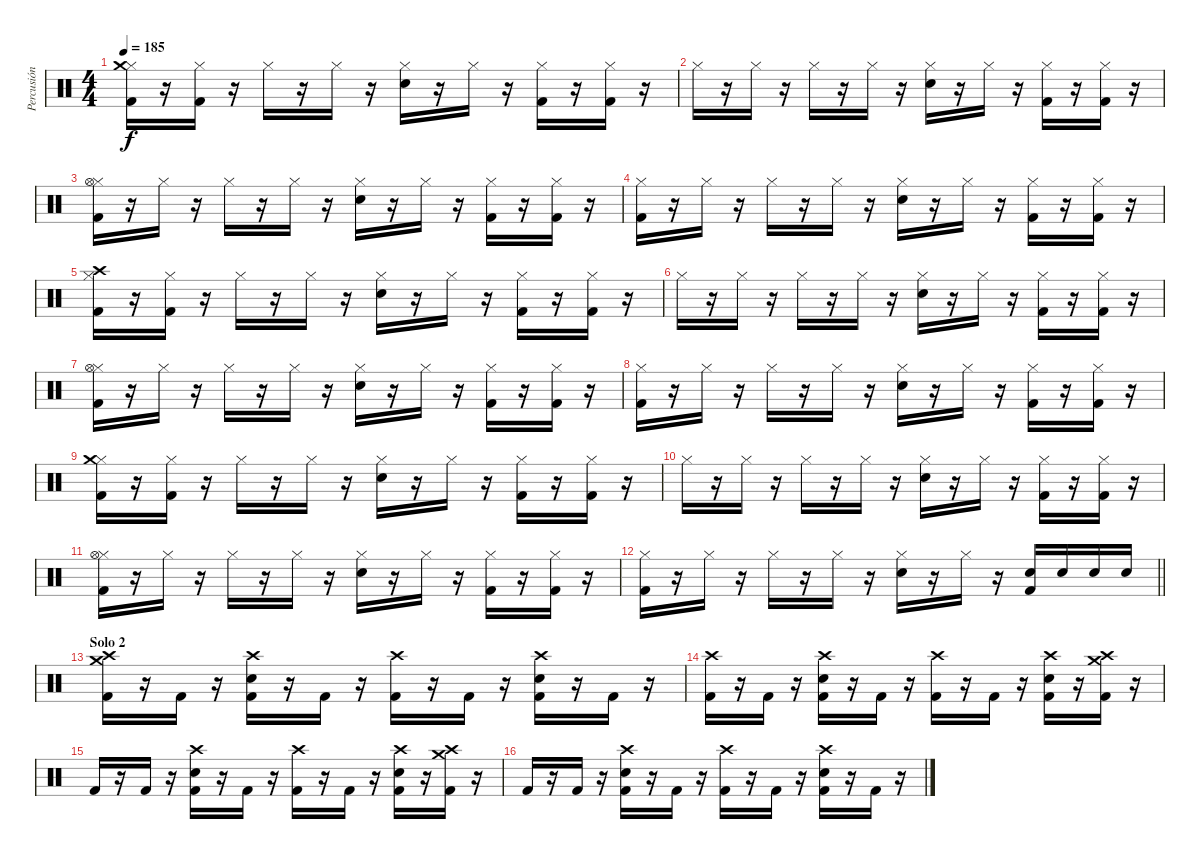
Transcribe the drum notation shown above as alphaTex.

\track ("Percusión" "Percusión") {instrument percussion}
\staff {score}
\articulation defaults
\ts (4 4)
\tempo 185
\clef neutral
\ks c
("Hi-Hat (closed)" "Crash medium (hit)" "Kick (hit) 2").16{dy f} r.16 ("Hi-Hat (closed)" "Kick (hit) 2").16 r.16 "Hi-Hat (closed)".16 r.16 "Hi-Hat (closed)".16 r.16 ("Hi-Hat (closed)" "Electric Snare (hit)").16 r.16 "Hi-Hat (closed)".16 r.16 ("Hi-Hat (closed)" "Kick (hit) 2").16 r.16 ("Hi-Hat (closed)" "Kick (hit) 2").16 r.16 |
"Hi-Hat (closed)".16 r.16 "Hi-Hat (closed)".16 r.16 "Hi-Hat (closed)".16 r.16 "Hi-Hat (closed)".16 r.16 ("Hi-Hat (closed)" "Electric Snare (hit)").16 r.16 "Hi-Hat (closed)".16 r.16 ("Hi-Hat (closed)" "Kick (hit) 2").16 r.16 ("Hi-Hat (closed)" "Kick (hit) 2").16 r.16 |
("Hi-Hat (closed)" "Hi-Hat (open)" "Kick (hit) 2").16 r.16 "Hi-Hat (closed)".16 r.16 "Hi-Hat (closed)".16 r.16 "Hi-Hat (closed)".16 r.16 ("Hi-Hat (closed)" "Electric Snare (hit)").16 r.16 "Hi-Hat (closed)".16 r.16 ("Hi-Hat (closed)" "Kick (hit) 2").16 r.16 ("Hi-Hat (closed)" "Kick (hit) 2").16 r.16 |
("Hi-Hat (closed)" "Kick (hit) 2").16 r.16 "Hi-Hat (closed)".16 r.16 "Hi-Hat (closed)".16 r.16 "Hi-Hat (closed)".16 r.16 ("Hi-Hat (closed)" "Electric Snare (hit)").16 r.16 "Hi-Hat (closed)".16 r.16 ("Hi-Hat (closed)" "Kick (hit) 2").16 r.16 ("Hi-Hat (closed)" "Kick (hit) 2").16 r.16 |
("Hi-Hat (closed)" "Crash high (hit)" "Kick (hit) 2").16 r.16 ("Hi-Hat (closed)" "Kick (hit) 2").16 r.16 "Hi-Hat (closed)".16 r.16 "Hi-Hat (closed)".16 r.16 ("Hi-Hat (closed)" "Electric Snare (hit)").16 r.16 "Hi-Hat (closed)".16 r.16 ("Hi-Hat (closed)" "Kick (hit) 2").16 r.16 ("Hi-Hat (closed)" "Kick (hit) 2").16 r.16 |
"Hi-Hat (closed)".16 r.16 "Hi-Hat (closed)".16 r.16 "Hi-Hat (closed)".16 r.16 "Hi-Hat (closed)".16 r.16 ("Hi-Hat (closed)" "Electric Snare (hit)").16 r.16 "Hi-Hat (closed)".16 r.16 ("Hi-Hat (closed)" "Kick (hit) 2").16 r.16 ("Hi-Hat (closed)" "Kick (hit) 2").16 r.16 |
("Hi-Hat (closed)" "Hi-Hat (open)" "Kick (hit) 2").16 r.16 "Hi-Hat (closed)".16 r.16 "Hi-Hat (closed)".16 r.16 "Hi-Hat (closed)".16 r.16 ("Hi-Hat (closed)" "Electric Snare (hit)").16 r.16 "Hi-Hat (closed)".16 r.16 ("Hi-Hat (closed)" "Kick (hit) 2").16 r.16 ("Hi-Hat (closed)" "Kick (hit) 2").16 r.16 |
("Hi-Hat (closed)" "Kick (hit) 2").16 r.16 "Hi-Hat (closed)".16 r.16 "Hi-Hat (closed)".16 r.16 "Hi-Hat (closed)".16 r.16 ("Hi-Hat (closed)" "Electric Snare (hit)").16 r.16 "Hi-Hat (closed)".16 r.16 ("Hi-Hat (closed)" "Kick (hit) 2").16 r.16 ("Hi-Hat (closed)" "Kick (hit) 2").16 r.16 |
("Hi-Hat (closed)" "Crash medium (hit)" "Kick (hit) 2").16 r.16 ("Hi-Hat (closed)" "Kick (hit) 2").16 r.16 "Hi-Hat (closed)".16 r.16 "Hi-Hat (closed)".16 r.16 ("Hi-Hat (closed)" "Electric Snare (hit)").16 r.16 "Hi-Hat (closed)".16 r.16 ("Hi-Hat (closed)" "Kick (hit) 2").16 r.16 ("Hi-Hat (closed)" "Kick (hit) 2").16 r.16 |
"Hi-Hat (closed)".16 r.16 "Hi-Hat (closed)".16 r.16 "Hi-Hat (closed)".16 r.16 "Hi-Hat (closed)".16 r.16 ("Hi-Hat (closed)" "Electric Snare (hit)").16 r.16 "Hi-Hat (closed)".16 r.16 ("Hi-Hat (closed)" "Kick (hit) 2").16 r.16 ("Hi-Hat (closed)" "Kick (hit) 2").16 r.16 |
("Hi-Hat (closed)" "Hi-Hat (open)" "Kick (hit) 2").16 r.16 "Hi-Hat (closed)".16 r.16 "Hi-Hat (closed)".16 r.16 "Hi-Hat (closed)".16 r.16 ("Hi-Hat (closed)" "Electric Snare (hit)").16 r.16 "Hi-Hat (closed)".16 r.16 ("Hi-Hat (closed)" "Kick (hit) 2").16 r.16 ("Hi-Hat (closed)" "Kick (hit) 2").16 r.16 |
\barLineRight lightlight
("Hi-Hat (closed)" "Kick (hit) 2").16 r.16 "Hi-Hat (closed)".16 r.16 "Hi-Hat (closed)".16 r.16 "Hi-Hat (closed)".16 r.16 ("Hi-Hat (closed)" "Electric Snare (hit)").16 r.16 "Hi-Hat (closed)".16 r.16 ("Electric Snare (hit)" "Kick (hit) 2").16 "Electric Snare (hit)".16 "Electric Snare (hit)".16 "Electric Snare (hit)".16 |
\section ("" "Solo 2")
("Crash high (hit)" "Crash medium (hit)" "Kick (hit) 2").16 r.16 "Kick (hit) 2".16 r.16 ("Crash high (hit)" "Electric Snare (hit)" "Kick (hit) 2").16 r.16 "Kick (hit) 2".16 r.16 ("Crash high (hit)" "Kick (hit) 2").16 r.16 "Kick (hit) 2".16 r.16 ("Crash high (hit)" "Electric Snare (hit)" "Kick (hit) 2").16 r.16 "Kick (hit) 2".16 r.16 |
("Crash high (hit)" "Kick (hit) 2").16 r.16 "Kick (hit) 2".16 r.16 ("Crash high (hit)" "Electric Snare (hit)" "Kick (hit) 2").16 r.16 "Kick (hit) 2".16 r.16 ("Crash high (hit)" "Kick (hit) 2").16 r.16 "Kick (hit) 2".16 r.16 ("Crash high (hit)" "Electric Snare (hit)" "Kick (hit) 2").16 r.16 ("Crash high (hit)" "Crash medium (hit)" "Kick (hit) 2").16 r.16 |
"Kick (hit) 2".16 r.16 "Kick (hit) 2".16 r.16 ("Crash high (hit)" "Electric Snare (hit)" "Kick (hit) 2").16 r.16 "Kick (hit) 2".16 r.16 ("Crash high (hit)" "Kick (hit) 2").16 r.16 "Kick (hit) 2".16 r.16 ("Crash high (hit)" "Electric Snare (hit)" "Kick (hit) 2").16 r.16 ("Crash high (hit)" "Crash medium (hit)" "Kick (hit) 2").16 r.16 |
"Kick (hit) 2".16 r.16 "Kick (hit) 2".16 r.16 ("Crash high (hit)" "Electric Snare (hit)" "Kick (hit) 2").16 r.16 "Kick (hit) 2".16 r.16 ("Crash high (hit)" "Kick (hit) 2").16 r.16 "Kick (hit) 2".16 r.16 ("Crash high (hit)" "Electric Snare (hit)" "Kick (hit) 2").16 r.16 "Kick (hit) 2".16 r.16
